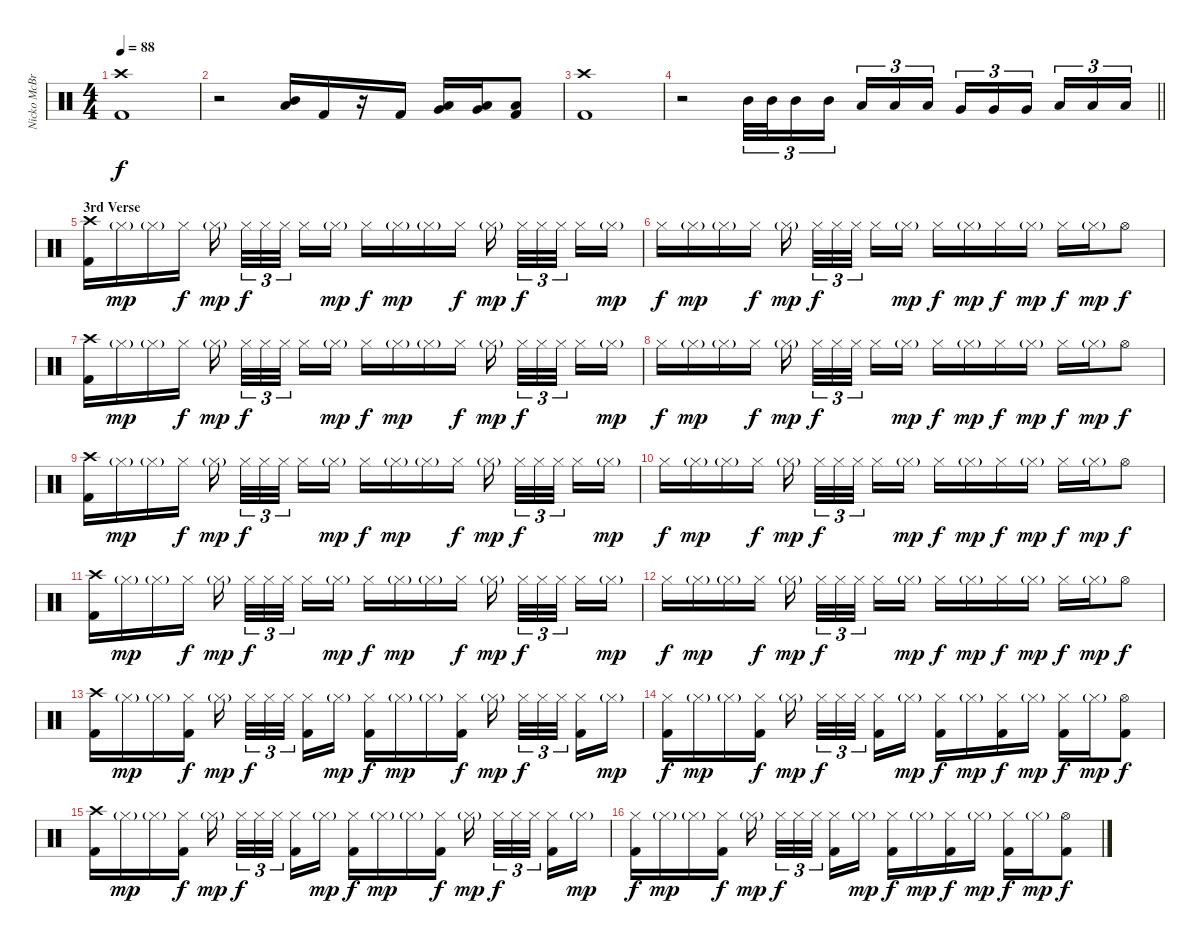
\track ("Nicko McBrian" "Nicko McBr") {instrument percussion}
\staff {score}
\articulation defaults
\ts (4 4)
\tempo 88
\clef neutral
\ks c
("Crash high (hit)" "Kick (hit) 2").1{dy f} |
r.2 ("Mid Tom (hit)" "Low Tom (hit)").16 "Kick (hit) 2".16 r.16 "Kick (hit) 2".16 ("Low Tom (hit)" "Very Low Tom (hit)").16 ("Low Tom (hit)" "Very Low Tom (hit)").16 ("Low Floor Tom (hit)" "Kick (hit) 2").8 |
("Crash high (hit)" "Kick (hit) 2").1 |
\barLineRight lightlight
r.2 "Mid Tom (hit)".32{tu (3 2)} "Mid Tom (hit)".32{tu (3 2)} "Mid Tom (hit)".16{tu (3 2)} "Mid Tom (hit)".16{tu (3 2) beam splitsecondary} "Low Tom (hit)".16{tu (3 2)} "Low Tom (hit)".16{tu (3 2)} "Low Tom (hit)".16{tu (3 2)} "Very Low Tom (hit)".16{tu (3 2)} "Very Low Tom (hit)".16{tu (3 2)} "Very Low Tom (hit)".16{tu (3 2) beam splitsecondary} "Low Floor Tom (hit)".16{tu (3 2)} "Low Floor Tom (hit)".16{tu (3 2)} "Low Floor Tom (hit)".16{tu (3 2)} |
\section ("" "3rd Verse")
("Crash high (hit)" "Kick (hit) 2").16 "Hi-Hat (closed)"{g}.16{dy mp} "Hi-Hat (closed)"{g}.16 "Hi-Hat (closed)".16{dy f} "Hi-Hat (closed)"{g}.16{dy mp beam splitsecondary} "Hi-Hat (closed)".32{tu (3 2) dy f} "Hi-Hat (closed)".32{tu (3 2)} "Hi-Hat (closed)".32{tu (3 2) beam splitsecondary} "Hi-Hat (closed)".16 "Hi-Hat (closed)"{g}.16{dy mp} "Hi-Hat (closed)".16{dy f} "Hi-Hat (closed)"{g}.16{dy mp} "Hi-Hat (closed)"{g}.16 "Hi-Hat (closed)".16{dy f} "Hi-Hat (closed)"{g}.16{dy mp beam splitsecondary} "Hi-Hat (closed)".32{tu (3 2) dy f} "Hi-Hat (closed)".32{tu (3 2)} "Hi-Hat (closed)".32{tu (3 2) beam splitsecondary} "Hi-Hat (closed)".16 "Hi-Hat (closed)"{g}.16{dy mp} |
"Hi-Hat (closed)".16{dy f} "Hi-Hat (closed)"{g}.16{dy mp} "Hi-Hat (closed)"{g}.16 "Hi-Hat (closed)".16{dy f} "Hi-Hat (closed)"{g}.16{dy mp beam splitsecondary} "Hi-Hat (closed)".32{tu (3 2) dy f} "Hi-Hat (closed)".32{tu (3 2)} "Hi-Hat (closed)".32{tu (3 2) beam splitsecondary} "Hi-Hat (closed)".16 "Hi-Hat (closed)"{g}.16{dy mp} "Hi-Hat (closed)".16{dy f} "Hi-Hat (closed)"{g}.16{dy mp} "Hi-Hat (closed)".16{dy f} "Hi-Hat (closed)"{g}.16{dy mp} "Hi-Hat (closed)".16{dy f} "Hi-Hat (closed)"{g}.16{dy mp} "Hi-Hat (open)".8{dy f} |
("Crash high (hit)" "Kick (hit) 2").16 "Hi-Hat (closed)"{g}.16{dy mp} "Hi-Hat (closed)"{g}.16 "Hi-Hat (closed)".16{dy f} "Hi-Hat (closed)"{g}.16{dy mp beam splitsecondary} "Hi-Hat (closed)".32{tu (3 2) dy f} "Hi-Hat (closed)".32{tu (3 2)} "Hi-Hat (closed)".32{tu (3 2) beam splitsecondary} "Hi-Hat (closed)".16 "Hi-Hat (closed)"{g}.16{dy mp} "Hi-Hat (closed)".16{dy f} "Hi-Hat (closed)"{g}.16{dy mp} "Hi-Hat (closed)"{g}.16 "Hi-Hat (closed)".16{dy f} "Hi-Hat (closed)"{g}.16{dy mp beam splitsecondary} "Hi-Hat (closed)".32{tu (3 2) dy f} "Hi-Hat (closed)".32{tu (3 2)} "Hi-Hat (closed)".32{tu (3 2) beam splitsecondary} "Hi-Hat (closed)".16 "Hi-Hat (closed)"{g}.16{dy mp} |
"Hi-Hat (closed)".16{dy f} "Hi-Hat (closed)"{g}.16{dy mp} "Hi-Hat (closed)"{g}.16 "Hi-Hat (closed)".16{dy f} "Hi-Hat (closed)"{g}.16{dy mp beam splitsecondary} "Hi-Hat (closed)".32{tu (3 2) dy f} "Hi-Hat (closed)".32{tu (3 2)} "Hi-Hat (closed)".32{tu (3 2) beam splitsecondary} "Hi-Hat (closed)".16 "Hi-Hat (closed)"{g}.16{dy mp} "Hi-Hat (closed)".16{dy f} "Hi-Hat (closed)"{g}.16{dy mp} "Hi-Hat (closed)".16{dy f} "Hi-Hat (closed)"{g}.16{dy mp} "Hi-Hat (closed)".16{dy f} "Hi-Hat (closed)"{g}.16{dy mp} "Hi-Hat (open)".8{dy f} |
("Crash high (hit)" "Kick (hit) 2").16 "Hi-Hat (closed)"{g}.16{dy mp} "Hi-Hat (closed)"{g}.16 "Hi-Hat (closed)".16{dy f} "Hi-Hat (closed)"{g}.16{dy mp beam splitsecondary} "Hi-Hat (closed)".32{tu (3 2) dy f} "Hi-Hat (closed)".32{tu (3 2)} "Hi-Hat (closed)".32{tu (3 2) beam splitsecondary} "Hi-Hat (closed)".16 "Hi-Hat (closed)"{g}.16{dy mp} "Hi-Hat (closed)".16{dy f} "Hi-Hat (closed)"{g}.16{dy mp} "Hi-Hat (closed)"{g}.16 "Hi-Hat (closed)".16{dy f} "Hi-Hat (closed)"{g}.16{dy mp beam splitsecondary} "Hi-Hat (closed)".32{tu (3 2) dy f} "Hi-Hat (closed)".32{tu (3 2)} "Hi-Hat (closed)".32{tu (3 2) beam splitsecondary} "Hi-Hat (closed)".16 "Hi-Hat (closed)"{g}.16{dy mp} |
"Hi-Hat (closed)".16{dy f} "Hi-Hat (closed)"{g}.16{dy mp} "Hi-Hat (closed)"{g}.16 "Hi-Hat (closed)".16{dy f} "Hi-Hat (closed)"{g}.16{dy mp beam splitsecondary} "Hi-Hat (closed)".32{tu (3 2) dy f} "Hi-Hat (closed)".32{tu (3 2)} "Hi-Hat (closed)".32{tu (3 2) beam splitsecondary} "Hi-Hat (closed)".16 "Hi-Hat (closed)"{g}.16{dy mp} "Hi-Hat (closed)".16{dy f} "Hi-Hat (closed)"{g}.16{dy mp} "Hi-Hat (closed)".16{dy f} "Hi-Hat (closed)"{g}.16{dy mp} "Hi-Hat (closed)".16{dy f} "Hi-Hat (closed)"{g}.16{dy mp} "Hi-Hat (open)".8{dy f} |
("Crash high (hit)" "Kick (hit) 2").16 "Hi-Hat (closed)"{g}.16{dy mp} "Hi-Hat (closed)"{g}.16 "Hi-Hat (closed)".16{dy f} "Hi-Hat (closed)"{g}.16{dy mp beam splitsecondary} "Hi-Hat (closed)".32{tu (3 2) dy f} "Hi-Hat (closed)".32{tu (3 2)} "Hi-Hat (closed)".32{tu (3 2) beam splitsecondary} "Hi-Hat (closed)".16 "Hi-Hat (closed)"{g}.16{dy mp} "Hi-Hat (closed)".16{dy f} "Hi-Hat (closed)"{g}.16{dy mp} "Hi-Hat (closed)"{g}.16 "Hi-Hat (closed)".16{dy f} "Hi-Hat (closed)"{g}.16{dy mp beam splitsecondary} "Hi-Hat (closed)".32{tu (3 2) dy f} "Hi-Hat (closed)".32{tu (3 2)} "Hi-Hat (closed)".32{tu (3 2) beam splitsecondary} "Hi-Hat (closed)".16 "Hi-Hat (closed)"{g}.16{dy mp} |
"Hi-Hat (closed)".16{dy f} "Hi-Hat (closed)"{g}.16{dy mp} "Hi-Hat (closed)"{g}.16 "Hi-Hat (closed)".16{dy f} "Hi-Hat (closed)"{g}.16{dy mp beam splitsecondary} "Hi-Hat (closed)".32{tu (3 2) dy f} "Hi-Hat (closed)".32{tu (3 2)} "Hi-Hat (closed)".32{tu (3 2) beam splitsecondary} "Hi-Hat (closed)".16 "Hi-Hat (closed)"{g}.16{dy mp} "Hi-Hat (closed)".16{dy f} "Hi-Hat (closed)"{g}.16{dy mp} "Hi-Hat (closed)".16{dy f} "Hi-Hat (closed)"{g}.16{dy mp} "Hi-Hat (closed)".16{dy f} "Hi-Hat (closed)"{g}.16{dy mp} "Hi-Hat (open)".8{dy f} |
("Crash high (hit)" "Kick (hit) 2").16 "Hi-Hat (closed)"{g}.16{dy mp} "Hi-Hat (closed)"{g}.16 ("Hi-Hat (closed)" "Kick (hit) 2").16{dy f} "Hi-Hat (closed)"{g}.16{dy mp beam splitsecondary} "Hi-Hat (closed)".32{tu (3 2) dy f} "Hi-Hat (closed)".32{tu (3 2)} "Hi-Hat (closed)".32{tu (3 2) beam splitsecondary} ("Hi-Hat (closed)" "Kick (hit) 2").16 "Hi-Hat (closed)"{g}.16{dy mp} ("Hi-Hat (closed)" "Kick (hit) 2").16{dy f} "Hi-Hat (closed)"{g}.16{dy mp} "Hi-Hat (closed)"{g}.16 ("Hi-Hat (closed)" "Kick (hit) 2").16{dy f} "Hi-Hat (closed)"{g}.16{dy mp beam splitsecondary} "Hi-Hat (closed)".32{tu (3 2) dy f} "Hi-Hat (closed)".32{tu (3 2)} "Hi-Hat (closed)".32{tu (3 2) beam splitsecondary} ("Hi-Hat (closed)" "Kick (hit) 2").16 "Hi-Hat (closed)"{g}.16{dy mp} |
("Hi-Hat (closed)" "Kick (hit) 2").16{dy f} "Hi-Hat (closed)"{g}.16{dy mp} "Hi-Hat (closed)"{g}.16 ("Hi-Hat (closed)" "Kick (hit) 2").16{dy f} "Hi-Hat (closed)"{g}.16{dy mp beam splitsecondary} "Hi-Hat (closed)".32{tu (3 2) dy f} "Hi-Hat (closed)".32{tu (3 2)} "Hi-Hat (closed)".32{tu (3 2) beam splitsecondary} ("Hi-Hat (closed)" "Kick (hit) 2").16 "Hi-Hat (closed)"{g}.16{dy mp} ("Hi-Hat (closed)" "Kick (hit) 2").16{dy f} "Hi-Hat (closed)"{g}.16{dy mp} ("Hi-Hat (closed)" "Kick (hit) 2").16{dy f} "Hi-Hat (closed)"{g}.16{dy mp} ("Hi-Hat (closed)" "Kick (hit) 2").16{dy f} "Hi-Hat (closed)"{g}.16{dy mp} ("Hi-Hat (open)" "Kick (hit) 2").8{dy f} |
("Crash high (hit)" "Kick (hit) 2").16 "Hi-Hat (closed)"{g}.16{dy mp} "Hi-Hat (closed)"{g}.16 ("Hi-Hat (closed)" "Kick (hit) 2").16{dy f} "Hi-Hat (closed)"{g}.16{dy mp beam splitsecondary} "Hi-Hat (closed)".32{tu (3 2) dy f} "Hi-Hat (closed)".32{tu (3 2)} "Hi-Hat (closed)".32{tu (3 2) beam splitsecondary} ("Hi-Hat (closed)" "Kick (hit) 2").16 "Hi-Hat (closed)"{g}.16{dy mp} ("Hi-Hat (closed)" "Kick (hit) 2").16{dy f} "Hi-Hat (closed)"{g}.16{dy mp} "Hi-Hat (closed)"{g}.16 ("Hi-Hat (closed)" "Kick (hit) 2").16{dy f} "Hi-Hat (closed)"{g}.16{dy mp beam splitsecondary} "Hi-Hat (closed)".32{tu (3 2) dy f} "Hi-Hat (closed)".32{tu (3 2)} "Hi-Hat (closed)".32{tu (3 2) beam splitsecondary} ("Hi-Hat (closed)" "Kick (hit) 2").16 "Hi-Hat (closed)"{g}.16{dy mp} |
("Hi-Hat (closed)" "Kick (hit) 2").16{dy f} "Hi-Hat (closed)"{g}.16{dy mp} "Hi-Hat (closed)"{g}.16 ("Hi-Hat (closed)" "Kick (hit) 2").16{dy f} "Hi-Hat (closed)"{g}.16{dy mp beam splitsecondary} "Hi-Hat (closed)".32{tu (3 2) dy f} "Hi-Hat (closed)".32{tu (3 2)} "Hi-Hat (closed)".32{tu (3 2) beam splitsecondary} ("Hi-Hat (closed)" "Kick (hit) 2").16 "Hi-Hat (closed)"{g}.16{dy mp} ("Hi-Hat (closed)" "Kick (hit) 2").16{dy f} "Hi-Hat (closed)"{g}.16{dy mp} ("Hi-Hat (closed)" "Kick (hit) 2").16{dy f} "Hi-Hat (closed)"{g}.16{dy mp} ("Hi-Hat (closed)" "Kick (hit) 2").16{dy f} "Hi-Hat (closed)"{g}.16{dy mp} ("Hi-Hat (open)" "Kick (hit) 2").8{dy f}
